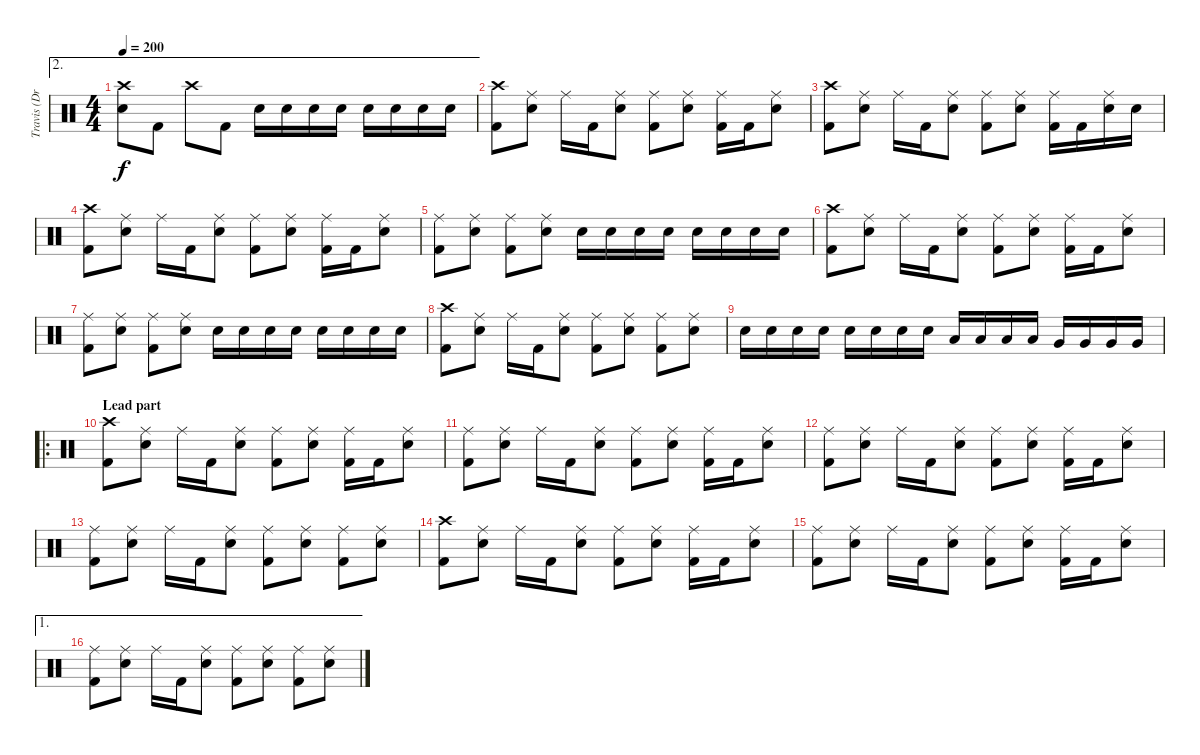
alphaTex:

\track ("Travis (Drums)" "Travis (Dr") {instrument percussion}
\staff {score}
\articulation defaults
\ae 2
\ts (4 4)
\tempo 200
\clef neutral
\ks c
("Crash high (hit)" "Electric Snare (hit)").8{dy f} "Kick (hit) 2".8 "Crash high (hit)".8 "Kick (hit) 2".8 "Electric Snare (hit)".16 "Electric Snare (hit)".16 "Electric Snare (hit)".16 "Electric Snare (hit)".16 "Electric Snare (hit)".16 "Electric Snare (hit)".16 "Electric Snare (hit)".16 "Electric Snare (hit)".16 |
("Crash high (hit)" "Kick (hit) 2").8 ("Ride (middle)" "Electric Snare (hit)").8 "Ride (middle)".16 "Kick (hit) 2".16 ("Ride (middle)" "Electric Snare (hit)").8 ("Ride (middle)" "Kick (hit) 2").8 ("Ride (middle)" "Electric Snare (hit)").8 ("Ride (middle)" "Kick (hit) 2").16 "Kick (hit) 2".16 ("Ride (middle)" "Electric Snare (hit)").8 |
("Crash high (hit)" "Kick (hit) 2").8 ("Ride (middle)" "Electric Snare (hit)").8 "Ride (middle)".16 "Kick (hit) 2".16 ("Ride (middle)" "Electric Snare (hit)").8 ("Ride (middle)" "Kick (hit) 2").8 ("Ride (middle)" "Electric Snare (hit)").8 ("Ride (middle)" "Kick (hit) 2").16 "Kick (hit) 2".16 ("Ride (middle)" "Electric Snare (hit)").16 "Electric Snare (hit)".16 |
("Crash high (hit)" "Kick (hit) 2").8 ("Ride (middle)" "Electric Snare (hit)").8 "Ride (middle)".16 "Kick (hit) 2".16 ("Ride (middle)" "Electric Snare (hit)").8 ("Ride (middle)" "Kick (hit) 2").8 ("Ride (middle)" "Electric Snare (hit)").8 ("Ride (middle)" "Kick (hit) 2").16 "Kick (hit) 2".16 ("Ride (middle)" "Electric Snare (hit)").8 |
("Ride (middle)" "Kick (hit) 2").8 ("Ride (middle)" "Electric Snare (hit)").8 ("Ride (middle)" "Kick (hit) 2").8 ("Ride (middle)" "Electric Snare (hit)").8 "Electric Snare (hit)".16 "Electric Snare (hit)".16 "Electric Snare (hit)".16 "Electric Snare (hit)".16 "Electric Snare (hit)".16 "Electric Snare (hit)".16 "Electric Snare (hit)".16 "Electric Snare (hit)".16 |
("Crash high (hit)" "Kick (hit) 2").8 ("Ride (middle)" "Electric Snare (hit)").8 "Ride (middle)".16 "Kick (hit) 2".16 ("Ride (middle)" "Electric Snare (hit)").8 ("Ride (middle)" "Kick (hit) 2").8 ("Ride (middle)" "Electric Snare (hit)").8 ("Ride (middle)" "Kick (hit) 2").16 "Kick (hit) 2".16 ("Ride (middle)" "Electric Snare (hit)").8 |
("Ride (middle)" "Kick (hit) 2").8 ("Ride (middle)" "Electric Snare (hit)").8 ("Ride (middle)" "Kick (hit) 2").8 ("Ride (middle)" "Electric Snare (hit)").8 "Electric Snare (hit)".16 "Electric Snare (hit)".16 "Electric Snare (hit)".16 "Electric Snare (hit)".16 "Electric Snare (hit)".16 "Electric Snare (hit)".16 "Electric Snare (hit)".16 "Electric Snare (hit)".16 |
("Crash high (hit)" "Kick (hit) 2").8 ("Ride (middle)" "Electric Snare (hit)").8 "Ride (middle)".16 "Kick (hit) 2".16 ("Ride (middle)" "Electric Snare (hit)").8 ("Ride (middle)" "Kick (hit) 2").8 ("Ride (middle)" "Electric Snare (hit)").8 ("Ride (middle)" "Kick (hit) 2").8 ("Ride (middle)" "Electric Snare (hit)").8 |
"Electric Snare (hit)".16 "Electric Snare (hit)".16 "Electric Snare (hit)".16 "Electric Snare (hit)".16 "Electric Snare (hit)".16 "Electric Snare (hit)".16 "Electric Snare (hit)".16 "Electric Snare (hit)".16 "Low Tom (hit)".16 "Low Tom (hit)".16 "Low Tom (hit)".16 "Low Tom (hit)".16 "Very Low Tom (hit)".16 "Very Low Tom (hit)".16 "Very Low Tom (hit)".16 "Very Low Tom (hit)".16 |
\ro
\section ("" "Lead part")
("Crash high (hit)" "Kick (hit) 2").8 ("Ride (middle)" "Electric Snare (hit)").8 "Ride (middle)".16 "Kick (hit) 2".16 ("Ride (middle)" "Electric Snare (hit)").8 ("Ride (middle)" "Kick (hit) 2").8 ("Ride (middle)" "Electric Snare (hit)").8 ("Ride (middle)" "Kick (hit) 2").16 "Kick (hit) 2".16 ("Ride (middle)" "Electric Snare (hit)").8 |
("Ride (middle)" "Kick (hit) 2").8 ("Ride (middle)" "Electric Snare (hit)").8 "Ride (middle)".16 "Kick (hit) 2".16 ("Ride (middle)" "Electric Snare (hit)").8 ("Ride (middle)" "Kick (hit) 2").8 ("Ride (middle)" "Electric Snare (hit)").8 ("Ride (middle)" "Kick (hit) 2").16 "Kick (hit) 2".16 ("Ride (middle)" "Electric Snare (hit)").8 |
("Ride (middle)" "Kick (hit) 2").8 ("Ride (middle)" "Electric Snare (hit)").8 "Ride (middle)".16 "Kick (hit) 2".16 ("Ride (middle)" "Electric Snare (hit)").8 ("Ride (middle)" "Kick (hit) 2").8 ("Ride (middle)" "Electric Snare (hit)").8 ("Ride (middle)" "Kick (hit) 2").16 "Kick (hit) 2".16 ("Ride (middle)" "Electric Snare (hit)").8 |
("Ride (middle)" "Kick (hit) 2").8 ("Ride (middle)" "Electric Snare (hit)").8 "Ride (middle)".16 "Kick (hit) 2".16 ("Ride (middle)" "Electric Snare (hit)").8 ("Ride (middle)" "Kick (hit) 2").8 ("Ride (middle)" "Electric Snare (hit)").8 ("Ride (middle)" "Kick (hit) 2").8 ("Ride (middle)" "Electric Snare (hit)").8 |
("Crash high (hit)" "Kick (hit) 2").8 ("Ride (middle)" "Electric Snare (hit)").8 "Ride (middle)".16 "Kick (hit) 2".16 ("Ride (middle)" "Electric Snare (hit)").8 ("Ride (middle)" "Kick (hit) 2").8 ("Ride (middle)" "Electric Snare (hit)").8 ("Ride (middle)" "Kick (hit) 2").16 "Kick (hit) 2".16 ("Ride (middle)" "Electric Snare (hit)").8 |
("Ride (middle)" "Kick (hit) 2").8 ("Ride (middle)" "Electric Snare (hit)").8 "Ride (middle)".16 "Kick (hit) 2".16 ("Ride (middle)" "Electric Snare (hit)").8 ("Ride (middle)" "Kick (hit) 2").8 ("Ride (middle)" "Electric Snare (hit)").8 ("Ride (middle)" "Kick (hit) 2").16 "Kick (hit) 2".16 ("Ride (middle)" "Electric Snare (hit)").8 |
\ae 1
("Ride (middle)" "Kick (hit) 2").8 ("Ride (middle)" "Electric Snare (hit)").8 "Ride (middle)".16 "Kick (hit) 2".16 ("Ride (middle)" "Electric Snare (hit)").8 ("Ride (middle)" "Kick (hit) 2").8 ("Ride (middle)" "Electric Snare (hit)").8 ("Ride (middle)" "Kick (hit) 2").8 ("Ride (middle)" "Electric Snare (hit)").8
